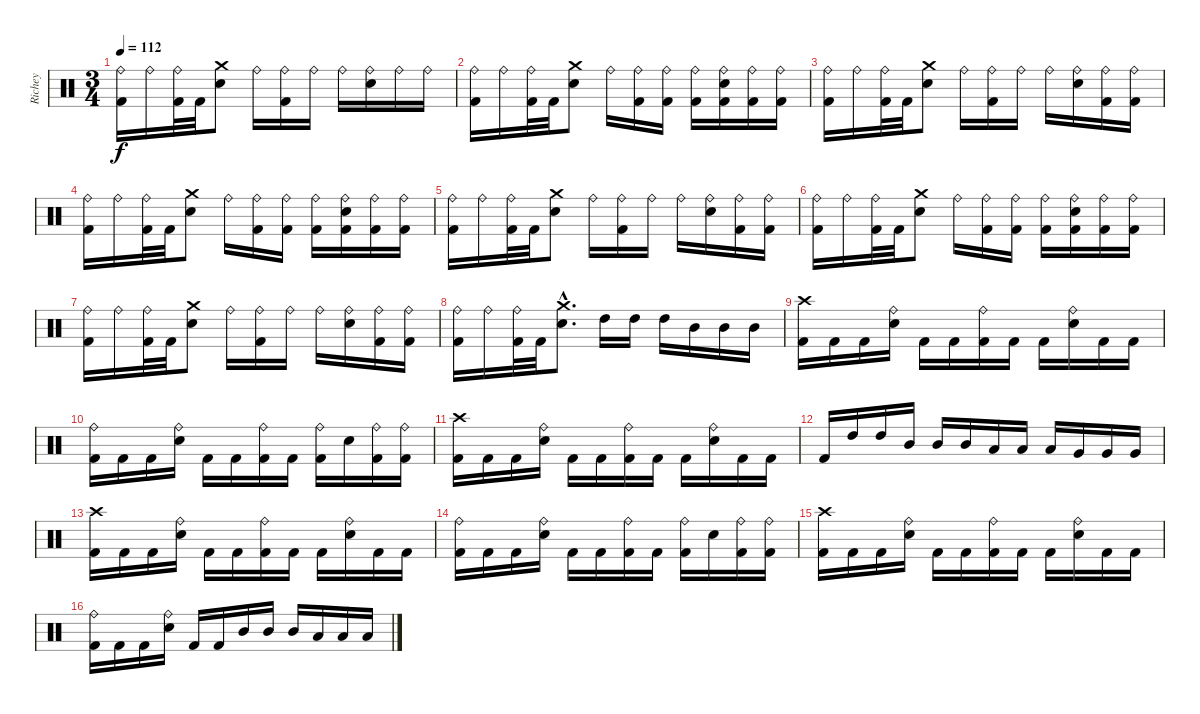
\track ("Richey" "Richey") {instrument percussion}
\staff {score}
\articulation defaults
\ts (3 4)
\tempo 112
\clef neutral
\ks c
("Ride (bell)" "Kick (hit) 2").16{dy f} "Ride (bell)".16 ("Ride (bell)" "Kick (hit) 2").32 "Kick (hit) 2".32 ("Crash medium (hit)" "Snare (hit) 2").8 "Ride (bell)".16 ("Ride (bell)" "Kick (hit) 2").16 "Ride (bell)".16 "Ride (bell)".16 ("Ride (bell)" "Snare (hit) 2").16 "Ride (bell)".16 "Ride (bell)".16 |
("Ride (bell)" "Kick (hit) 2").16 "Ride (bell)".16 ("Ride (bell)" "Kick (hit) 2").32 "Kick (hit) 2".32 ("Crash medium (hit)" "Snare (hit) 2").8 "Ride (bell)".16 ("Ride (bell)" "Kick (hit) 2").16 ("Ride (bell)" "Kick (hit) 2").16 ("Ride (bell)" "Kick (hit) 2").16 ("Ride (bell)" "Snare (hit) 2" "Kick (hit) 2").16 ("Ride (bell)" "Kick (hit) 2").16 ("Ride (bell)" "Kick (hit) 2").16 |
("Ride (bell)" "Kick (hit) 2").16 "Ride (bell)".16 ("Ride (bell)" "Kick (hit) 2").32 "Kick (hit) 2".32 ("Crash medium (hit)" "Snare (hit) 2").8 "Ride (bell)".16 ("Ride (bell)" "Kick (hit) 2").16 "Ride (bell)".16 "Ride (bell)".16 ("Ride (bell)" "Snare (hit) 2").16 ("Ride (bell)" "Kick (hit) 2").16 ("Ride (bell)" "Kick (hit) 2").16 |
("Ride (bell)" "Kick (hit) 2").16 "Ride (bell)".16 ("Ride (bell)" "Kick (hit) 2").32 "Kick (hit) 2".32 ("Crash medium (hit)" "Snare (hit) 2").8 "Ride (bell)".16 ("Ride (bell)" "Kick (hit) 2").16 ("Ride (bell)" "Kick (hit) 2").16 ("Ride (bell)" "Kick (hit) 2").16 ("Ride (bell)" "Snare (hit) 2" "Kick (hit) 2").16 ("Ride (bell)" "Kick (hit) 2").16 ("Ride (bell)" "Kick (hit) 2").16 |
("Ride (bell)" "Kick (hit) 2").16 "Ride (bell)".16 ("Ride (bell)" "Kick (hit) 2").32 "Kick (hit) 2".32 ("Crash medium (hit)" "Snare (hit) 2").8 "Ride (bell)".16 ("Ride (bell)" "Kick (hit) 2").16 "Ride (bell)".16 "Ride (bell)".16 ("Ride (bell)" "Snare (hit) 2").16 ("Ride (bell)" "Kick (hit) 2").16 ("Ride (bell)" "Kick (hit) 2").16 |
("Ride (bell)" "Kick (hit) 2").16 "Ride (bell)".16 ("Ride (bell)" "Kick (hit) 2").32 "Kick (hit) 2".32 ("Crash medium (hit)" "Snare (hit) 2").8 "Ride (bell)".16 ("Ride (bell)" "Kick (hit) 2").16 ("Ride (bell)" "Kick (hit) 2").16 ("Ride (bell)" "Kick (hit) 2").16 ("Ride (bell)" "Snare (hit) 2" "Kick (hit) 2").16 ("Ride (bell)" "Kick (hit) 2").16 ("Ride (bell)" "Kick (hit) 2").16 |
("Ride (bell)" "Kick (hit) 2").16 "Ride (bell)".16 ("Ride (bell)" "Kick (hit) 2").32 "Kick (hit) 2".32 ("Crash medium (hit)" "Snare (hit) 2").8 "Ride (bell)".16 ("Ride (bell)" "Kick (hit) 2").16 "Ride (bell)".16 "Ride (bell)".16 ("Ride (bell)" "Snare (hit) 2").16 ("Ride (bell)" "Kick (hit) 2").16 ("Ride (bell)" "Kick (hit) 2").16 |
("Ride (bell)" "Kick (hit) 2").16 "Ride (bell)".16 ("Ride (bell)" "Kick (hit) 2").32 "Kick (hit) 2".32 ("Crash medium (hit)"{hac} "Snare (hit) 2"{hac}).8{d} "High Tom (hit)".16 "High Tom (hit)".16 "High Tom (hit)".16 "Mid Tom (hit)".16 "Mid Tom (hit)".16 "Mid Tom (hit)".16 |
("Crash high (hit)" "Kick (hit) 2").16 "Kick (hit) 2".16 "Kick (hit) 2".16 ("Ride (bell)" "Snare (hit) 2").16 "Kick (hit) 2".16 "Kick (hit) 2".16 ("Ride (bell)" "Kick (hit) 2").16 "Kick (hit) 2".16 "Kick (hit) 2".16 ("Ride (bell)" "Snare (hit) 2").16 "Kick (hit) 2".16 "Kick (hit) 2".16 |
("Ride (bell)" "Kick (hit) 2").16 "Kick (hit) 2".16 "Kick (hit) 2".16 ("Ride (bell)" "Snare (hit) 2").16 "Kick (hit) 2".16 "Kick (hit) 2".16 ("Ride (bell)" "Kick (hit) 2").16 "Kick (hit) 2".16 ("Ride (bell)" "Kick (hit) 2").16 "Snare (hit) 2".16 ("Ride (bell)" "Kick (hit) 2").16 ("Ride (bell)" "Kick (hit) 2").16 |
("Crash high (hit)" "Kick (hit) 2").16 "Kick (hit) 2".16 "Kick (hit) 2".16 ("Ride (bell)" "Snare (hit) 2").16 "Kick (hit) 2".16 "Kick (hit) 2".16 ("Ride (bell)" "Kick (hit) 2").16 "Kick (hit) 2".16 "Kick (hit) 2".16 ("Ride (bell)" "Snare (hit) 2").16 "Kick (hit) 2".16 "Kick (hit) 2".16 |
"Kick (hit) 2".16 "High Tom (hit)".16 "High Tom (hit)".16 "Mid Tom (hit)".16 "Mid Tom (hit)".16 "Mid Tom (hit)".16 "Low Tom (hit)".16 "Low Tom (hit)".16 "Low Tom (hit)".16 "Very Low Tom (hit)".16 "Very Low Tom (hit)".16 "Very Low Tom (hit)".16 |
("Crash high (hit)" "Kick (hit) 2").16 "Kick (hit) 2".16 "Kick (hit) 2".16 ("Ride (bell)" "Snare (hit) 2").16 "Kick (hit) 2".16 "Kick (hit) 2".16 ("Ride (bell)" "Kick (hit) 2").16 "Kick (hit) 2".16 "Kick (hit) 2".16 ("Ride (bell)" "Snare (hit) 2").16 "Kick (hit) 2".16 "Kick (hit) 2".16 |
("Ride (bell)" "Kick (hit) 2").16 "Kick (hit) 2".16 "Kick (hit) 2".16 ("Ride (bell)" "Snare (hit) 2").16 "Kick (hit) 2".16 "Kick (hit) 2".16 ("Ride (bell)" "Kick (hit) 2").16 "Kick (hit) 2".16 ("Ride (bell)" "Kick (hit) 2").16 "Snare (hit) 2".16 ("Ride (bell)" "Kick (hit) 2").16 ("Ride (bell)" "Kick (hit) 2").16 |
("Crash high (hit)" "Kick (hit) 2").16 "Kick (hit) 2".16 "Kick (hit) 2".16 ("Ride (bell)" "Snare (hit) 2").16 "Kick (hit) 2".16 "Kick (hit) 2".16 ("Ride (bell)" "Kick (hit) 2").16 "Kick (hit) 2".16 "Kick (hit) 2".16 ("Ride (bell)" "Snare (hit) 2").16 "Kick (hit) 2".16 "Kick (hit) 2".16 |
("Ride (bell)" "Kick (hit) 2").16 "Kick (hit) 2".16 "Kick (hit) 2".16 ("Ride (bell)" "Snare (hit) 2").16 "Kick (hit) 2".16 "Kick (hit) 2".16 "Mid Tom (hit)".16 "Mid Tom (hit)".16 "Mid Tom (hit)".16 "Low Tom (hit)".16 "Low Tom (hit)".16 "Low Tom (hit)".16
